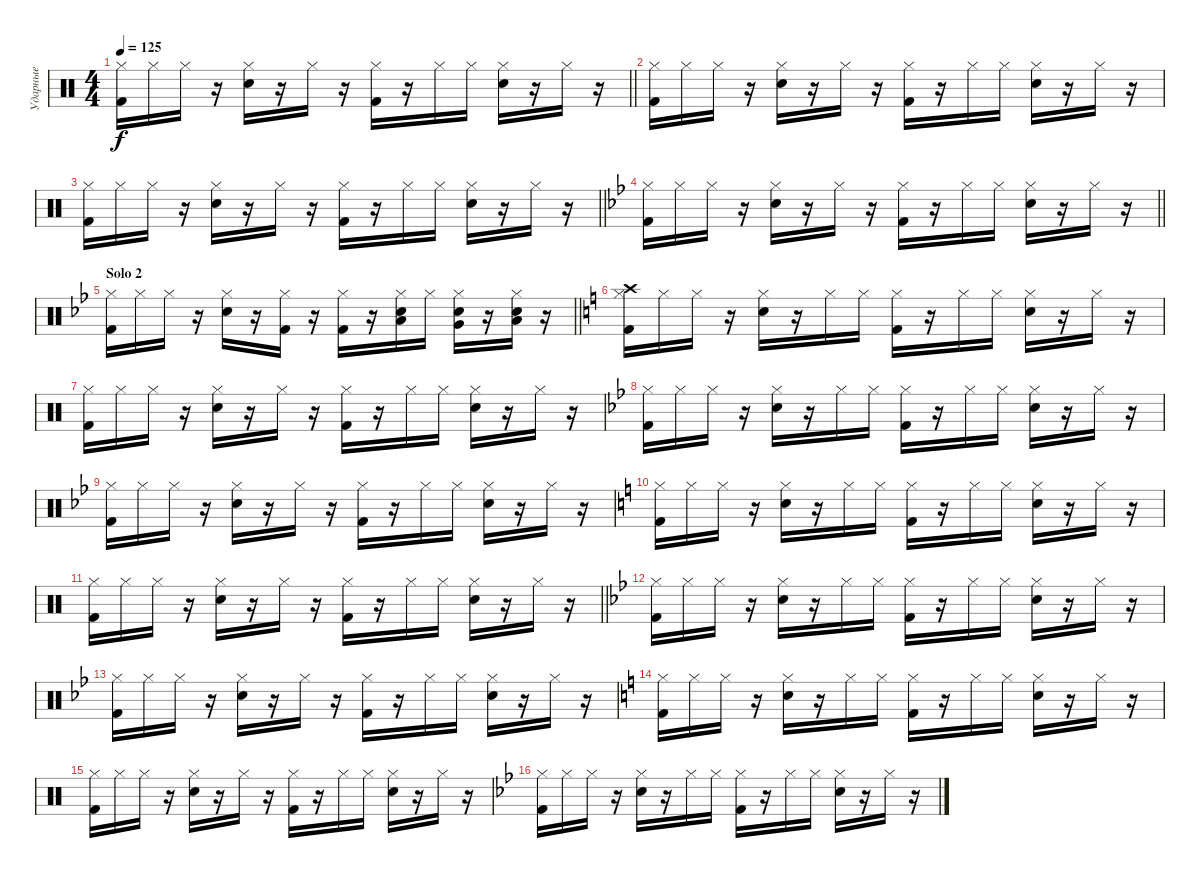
\track ("Ударные" "Ударные") {instrument percussion}
\staff {score}
\articulation defaults
\ts (4 4)
\tempo 125
\clef neutral
\barLineRight lightlight
\ks c
("Kick (hit) 2" "Hi-Hat (closed)").16{dy f} "Hi-Hat (closed)".16 "Hi-Hat (closed)".16 r.16 ("Snare (hit) 2" "Hi-Hat (closed)").16 r.16 "Hi-Hat (closed)".16 r.16 ("Kick (hit) 2" "Hi-Hat (closed)").16 r.16 "Hi-Hat (closed)".16 "Hi-Hat (closed)".16 ("Snare (hit) 2" "Hi-Hat (closed)").16 r.16 "Hi-Hat (closed)".16 r.16 |
("Kick (hit) 2" "Hi-Hat (closed)").16 "Hi-Hat (closed)".16 "Hi-Hat (closed)".16 r.16 ("Snare (hit) 2" "Hi-Hat (closed)").16 r.16 "Hi-Hat (closed)".16 r.16 ("Kick (hit) 2" "Hi-Hat (closed)").16 r.16 "Hi-Hat (closed)".16 "Hi-Hat (closed)".16 ("Snare (hit) 2" "Hi-Hat (closed)").16 r.16 "Hi-Hat (closed)".16 r.16 |
\barLineRight lightlight
("Kick (hit) 2" "Hi-Hat (closed)").16 "Hi-Hat (closed)".16 "Hi-Hat (closed)".16 r.16 ("Snare (hit) 2" "Hi-Hat (closed)").16 r.16 "Hi-Hat (closed)".16 r.16 ("Kick (hit) 2" "Hi-Hat (closed)").16 r.16 "Hi-Hat (closed)".16 "Hi-Hat (closed)".16 ("Snare (hit) 2" "Hi-Hat (closed)").16 r.16 "Hi-Hat (closed)".16 r.16 |
\barLineRight lightlight
\ks bb
("Kick (hit) 2" "Hi-Hat (closed)").16 "Hi-Hat (closed)".16 "Hi-Hat (closed)".16 r.16 ("Snare (hit) 2" "Hi-Hat (closed)").16 r.16 "Hi-Hat (closed)".16 r.16 ("Kick (hit) 2" "Hi-Hat (closed)").16 r.16 "Hi-Hat (closed)".16 "Hi-Hat (closed)".16 ("Snare (hit) 2" "Hi-Hat (closed)").16 r.16 "Hi-Hat (closed)".16 r.16 |
\section ("" "Solo 2")
\barLineRight lightlight
("Kick (hit) 2" "Hi-Hat (closed)").16 "Hi-Hat (closed)".16 "Hi-Hat (closed)".16 r.16 ("Snare (hit) 2" "Hi-Hat (closed)").16 r.16 ("Kick (hit) 2" "Hi-Hat (closed)").16 r.16 ("Kick (hit) 2" "Hi-Hat (closed)").16 r.16 ("Snare (hit) 2" "Low Floor Tom (hit)" "Hi-Hat (closed)").16 "Hi-Hat (closed)".16 ("Snare (hit) 2" "Very Low Tom (hit)" "Hi-Hat (closed)").16 r.16 ("Snare (hit) 2" "Low Tom (hit)" "Hi-Hat (closed)").16 r.16 |
\ks c
("Kick (hit) 2" "Crash high (hit)" "Hi-Hat (closed)").16 "Hi-Hat (closed)".16 "Hi-Hat (closed)".16 r.16 ("Snare (hit) 2" "Hi-Hat (closed)").16 r.16 "Hi-Hat (closed)".16 "Hi-Hat (closed)".16 ("Kick (hit) 2" "Hi-Hat (closed)").16 r.16 "Hi-Hat (closed)".16 "Hi-Hat (closed)".16 ("Snare (hit) 2" "Hi-Hat (closed)").16 r.16 "Hi-Hat (closed)".16 r.16 |
("Kick (hit) 2" "Hi-Hat (closed)").16 "Hi-Hat (closed)".16 "Hi-Hat (closed)".16 r.16 ("Snare (hit) 2" "Hi-Hat (closed)").16 r.16 "Hi-Hat (closed)".16 r.16 ("Kick (hit) 2" "Hi-Hat (closed)").16 r.16 "Hi-Hat (closed)".16 "Hi-Hat (closed)".16 ("Snare (hit) 2" "Hi-Hat (closed)").16 r.16 "Hi-Hat (closed)".16 r.16 |
\ks bb
("Kick (hit) 2" "Hi-Hat (closed)").16 "Hi-Hat (closed)".16 "Hi-Hat (closed)".16 r.16 ("Snare (hit) 2" "Hi-Hat (closed)").16 r.16 "Hi-Hat (closed)".16 "Hi-Hat (closed)".16 ("Kick (hit) 2" "Hi-Hat (closed)").16 r.16 "Hi-Hat (closed)".16 "Hi-Hat (closed)".16 ("Snare (hit) 2" "Hi-Hat (closed)").16 r.16 "Hi-Hat (closed)".16 r.16 |
("Kick (hit) 2" "Hi-Hat (closed)").16 "Hi-Hat (closed)".16 "Hi-Hat (closed)".16 r.16 ("Snare (hit) 2" "Hi-Hat (closed)").16 r.16 "Hi-Hat (closed)".16 r.16 ("Kick (hit) 2" "Hi-Hat (closed)").16 r.16 "Hi-Hat (closed)".16 "Hi-Hat (closed)".16 ("Snare (hit) 2" "Hi-Hat (closed)").16 r.16 "Hi-Hat (closed)".16 r.16 |
\ks c
("Kick (hit) 2" "Hi-Hat (closed)").16 "Hi-Hat (closed)".16 "Hi-Hat (closed)".16 r.16 ("Snare (hit) 2" "Hi-Hat (closed)").16 r.16 "Hi-Hat (closed)".16 "Hi-Hat (closed)".16 ("Kick (hit) 2" "Hi-Hat (closed)").16 r.16 "Hi-Hat (closed)".16 "Hi-Hat (closed)".16 ("Snare (hit) 2" "Hi-Hat (closed)").16 r.16 "Hi-Hat (closed)".16 r.16 |
\barLineRight lightlight
("Kick (hit) 2" "Hi-Hat (closed)").16 "Hi-Hat (closed)".16 "Hi-Hat (closed)".16 r.16 ("Snare (hit) 2" "Hi-Hat (closed)").16 r.16 "Hi-Hat (closed)".16 r.16 ("Kick (hit) 2" "Hi-Hat (closed)").16 r.16 "Hi-Hat (closed)".16 "Hi-Hat (closed)".16 ("Snare (hit) 2" "Hi-Hat (closed)").16 r.16 "Hi-Hat (closed)".16 r.16 |
\ks bb
("Kick (hit) 2" "Hi-Hat (closed)").16 "Hi-Hat (closed)".16 "Hi-Hat (closed)".16 r.16 ("Snare (hit) 2" "Hi-Hat (closed)").16 r.16 "Hi-Hat (closed)".16 "Hi-Hat (closed)".16 ("Kick (hit) 2" "Hi-Hat (closed)").16 r.16 "Hi-Hat (closed)".16 "Hi-Hat (closed)".16 ("Snare (hit) 2" "Hi-Hat (closed)").16 r.16 "Hi-Hat (closed)".16 r.16 |
("Kick (hit) 2" "Hi-Hat (closed)").16 "Hi-Hat (closed)".16 "Hi-Hat (closed)".16 r.16 ("Snare (hit) 2" "Hi-Hat (closed)").16 r.16 "Hi-Hat (closed)".16 r.16 ("Kick (hit) 2" "Hi-Hat (closed)").16 r.16 "Hi-Hat (closed)".16 "Hi-Hat (closed)".16 ("Snare (hit) 2" "Hi-Hat (closed)").16 r.16 "Hi-Hat (closed)".16 r.16 |
\ks c
("Kick (hit) 2" "Hi-Hat (closed)").16 "Hi-Hat (closed)".16 "Hi-Hat (closed)".16 r.16 ("Snare (hit) 2" "Hi-Hat (closed)").16 r.16 "Hi-Hat (closed)".16 "Hi-Hat (closed)".16 ("Kick (hit) 2" "Hi-Hat (closed)").16 r.16 "Hi-Hat (closed)".16 "Hi-Hat (closed)".16 ("Snare (hit) 2" "Hi-Hat (closed)").16 r.16 "Hi-Hat (closed)".16 r.16 |
("Kick (hit) 2" "Hi-Hat (closed)").16 "Hi-Hat (closed)".16 "Hi-Hat (closed)".16 r.16 ("Snare (hit) 2" "Hi-Hat (closed)").16 r.16 "Hi-Hat (closed)".16 r.16 ("Kick (hit) 2" "Hi-Hat (closed)").16 r.16 "Hi-Hat (closed)".16 "Hi-Hat (closed)".16 ("Snare (hit) 2" "Hi-Hat (closed)").16 r.16 "Hi-Hat (closed)".16 r.16 |
\ks bb
("Kick (hit) 2" "Hi-Hat (closed)").16 "Hi-Hat (closed)".16 "Hi-Hat (closed)".16 r.16 ("Snare (hit) 2" "Hi-Hat (closed)").16 r.16 "Hi-Hat (closed)".16 "Hi-Hat (closed)".16 ("Kick (hit) 2" "Hi-Hat (closed)").16 r.16 "Hi-Hat (closed)".16 "Hi-Hat (closed)".16 ("Snare (hit) 2" "Hi-Hat (closed)").16 r.16 "Hi-Hat (closed)".16 r.16
